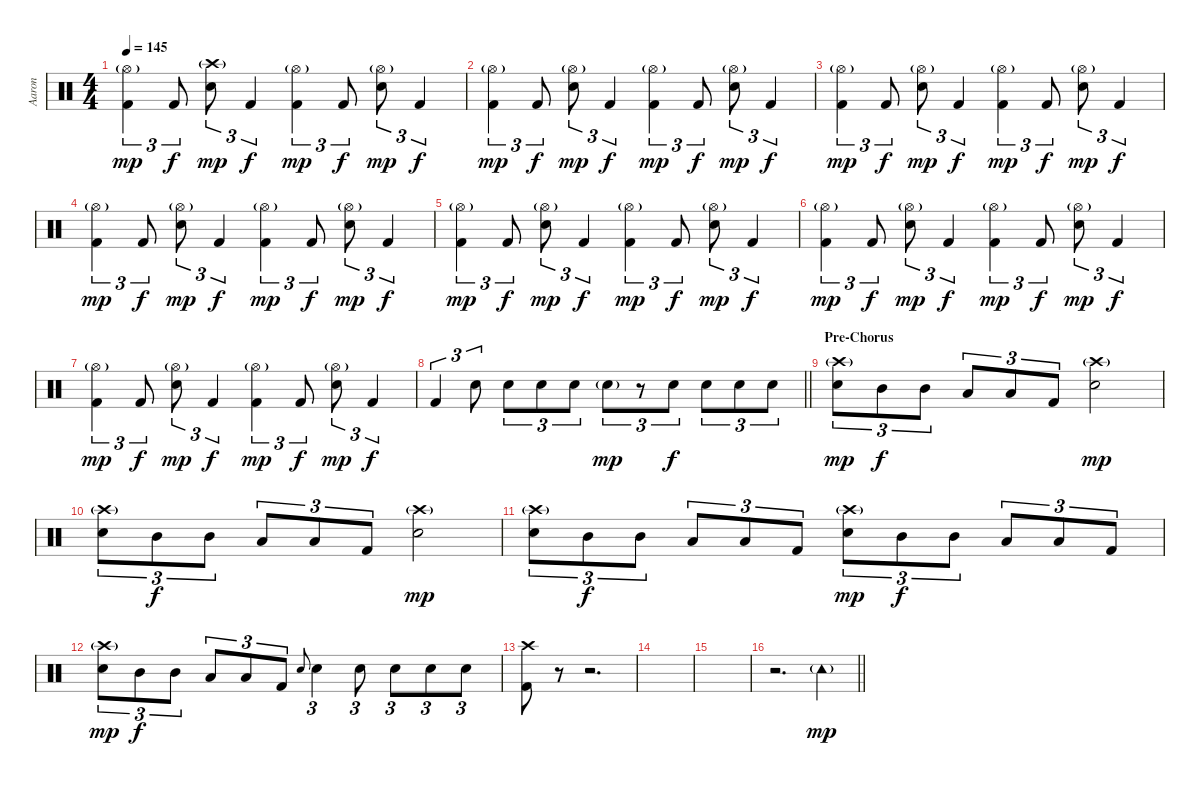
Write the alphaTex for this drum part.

\track ("Aaron" "Aaron") {instrument percussion}
\staff {score}
\articulation defaults
\ts (4 4)
\tempo 145
\clef neutral
\ks c
("Hi-Hat (open)"{g} "Kick (hit) 2").4{tu (3 2) dy mp} "Kick (hit) 2".8{tu (3 2) dy f} ("Crash high (hit)"{g} "Electric Snare (hit)").8{tu (3 2) dy mp} "Kick (hit) 2".4{tu (3 2) dy f} ("Hi-Hat (open)"{g} "Kick (hit) 2").4{tu (3 2) dy mp} "Kick (hit) 2".8{tu (3 2) dy f} ("Hi-Hat (open)"{g} "Electric Snare (hit)").8{tu (3 2) dy mp} "Kick (hit) 2".4{tu (3 2) dy f} |
("Hi-Hat (open)"{g} "Kick (hit) 2").4{tu (3 2) dy mp} "Kick (hit) 2".8{tu (3 2) dy f} ("Hi-Hat (open)"{g} "Electric Snare (hit)").8{tu (3 2) dy mp} "Kick (hit) 2".4{tu (3 2) dy f} ("Hi-Hat (open)"{g} "Kick (hit) 2").4{tu (3 2) dy mp} "Kick (hit) 2".8{tu (3 2) dy f} ("Hi-Hat (open)"{g} "Electric Snare (hit)").8{tu (3 2) dy mp} "Kick (hit) 2".4{tu (3 2) dy f} |
("Hi-Hat (open)"{g} "Kick (hit) 2").4{tu (3 2) dy mp} "Kick (hit) 2".8{tu (3 2) dy f} ("Hi-Hat (open)"{g} "Electric Snare (hit)").8{tu (3 2) dy mp} "Kick (hit) 2".4{tu (3 2) dy f} ("Hi-Hat (open)"{g} "Kick (hit) 2").4{tu (3 2) dy mp} "Kick (hit) 2".8{tu (3 2) dy f} ("Hi-Hat (open)"{g} "Electric Snare (hit)").8{tu (3 2) dy mp} "Kick (hit) 2".4{tu (3 2) dy f} |
("Hi-Hat (open)"{g} "Kick (hit) 2").4{tu (3 2) dy mp} "Kick (hit) 2".8{tu (3 2) dy f} ("Hi-Hat (open)"{g} "Electric Snare (hit)").8{tu (3 2) dy mp} "Kick (hit) 2".4{tu (3 2) dy f} ("Hi-Hat (open)"{g} "Kick (hit) 2").4{tu (3 2) dy mp} "Kick (hit) 2".8{tu (3 2) dy f} ("Hi-Hat (open)"{g} "Electric Snare (hit)").8{tu (3 2) dy mp} "Kick (hit) 2".4{tu (3 2) dy f} |
("Hi-Hat (open)"{g} "Kick (hit) 2").4{tu (3 2) dy mp} "Kick (hit) 2".8{tu (3 2) dy f} ("Hi-Hat (open)"{g} "Electric Snare (hit)").8{tu (3 2) dy mp} "Kick (hit) 2".4{tu (3 2) dy f} ("Hi-Hat (open)"{g} "Kick (hit) 2").4{tu (3 2) dy mp} "Kick (hit) 2".8{tu (3 2) dy f} ("Hi-Hat (open)"{g} "Electric Snare (hit)").8{tu (3 2) dy mp} "Kick (hit) 2".4{tu (3 2) dy f} |
("Hi-Hat (open)"{g} "Kick (hit) 2").4{tu (3 2) dy mp} "Kick (hit) 2".8{tu (3 2) dy f} ("Hi-Hat (open)"{g} "Electric Snare (hit)").8{tu (3 2) dy mp} "Kick (hit) 2".4{tu (3 2) dy f} ("Hi-Hat (open)"{g} "Kick (hit) 2").4{tu (3 2) dy mp} "Kick (hit) 2".8{tu (3 2) dy f} ("Hi-Hat (open)"{g} "Electric Snare (hit)").8{tu (3 2) dy mp} "Kick (hit) 2".4{tu (3 2) dy f} |
("Hi-Hat (open)"{g} "Kick (hit) 2").4{tu (3 2) dy mp} "Kick (hit) 2".8{tu (3 2) dy f} ("Hi-Hat (open)"{g} "Electric Snare (hit)").8{tu (3 2) dy mp} "Kick (hit) 2".4{tu (3 2) dy f} ("Hi-Hat (open)"{g} "Kick (hit) 2").4{tu (3 2) dy mp} "Kick (hit) 2".8{tu (3 2) dy f} ("Hi-Hat (open)"{g} "Electric Snare (hit)").8{tu (3 2) dy mp} "Kick (hit) 2".4{tu (3 2) dy f} |
\barLineRight lightlight "Kick (hit) 2".4{tu (3 2)} "Electric Snare (hit)".8{tu (3 2)} "Electric Snare (hit)".8{tu (3 2)} "Electric Snare (hit)".8{tu (3 2)} "Electric Snare (hit)".8{tu (3 2)} "Electric Snare (hit)"{g}.8{tu (3 2) dy mp}
r.8{tu (3 2)} "Electric Snare (hit)".8{tu (3 2) dy f} "Electric Snare (hit)".8{tu (3 2)} "Electric Snare (hit)".8{tu (3 2)} "Electric Snare (hit)".8{tu (3 2)} |
\section ("" "Pre-Chorus")
("Crash high (hit)"{g} "Electric Snare (hit)").8{tu (3 2) dy mp} "Mid Tom (hit)".8{tu (3 2) dy f} "Mid Tom (hit)".8{tu (3 2)} "Low Tom (hit)".8{tu (3 2)} "Low Tom (hit)".8{tu (3 2)} "Kick (hit) 2".8{tu (3 2)} ("Crash high (hit)"{g} "Electric Snare (hit)").2{dy mp} |
("Crash high (hit)"{g} "Electric Snare (hit)").8{tu (3 2)} "Mid Tom (hit)".8{tu (3 2) dy f} "Mid Tom (hit)".8{tu (3 2)} "Low Tom (hit)".8{tu (3 2)} "Low Tom (hit)".8{tu (3 2)} "Kick (hit) 2".8{tu (3 2)} ("Crash high (hit)"{g} "Electric Snare (hit)").2{dy mp} |
("Crash high (hit)"{g} "Electric Snare (hit)").8{tu (3 2)} "Mid Tom (hit)".8{tu (3 2) dy f} "Mid Tom (hit)".8{tu (3 2)} "Low Tom (hit)".8{tu (3 2)} "Low Tom (hit)".8{tu (3 2)} "Kick (hit) 2".8{tu (3 2)} ("Crash high (hit)"{g} "Electric Snare (hit)").8{tu (3 2) dy mp} "Mid Tom (hit)".8{tu (3 2) dy f} "Mid Tom (hit)".8{tu (3 2)} "Low Tom (hit)".8{tu (3 2)} "Low Tom (hit)".8{tu (3 2)} "Kick (hit) 2".8{tu (3 2)} |
("Crash high (hit)"{g} "Electric Snare (hit)").8{tu (3 2) dy mp} "Mid Tom (hit)".8{tu (3 2) dy f} "Mid Tom (hit)".8{tu (3 2)} "Low Tom (hit)".8{tu (3 2)} "Low Tom (hit)".8{tu (3 2)} "Kick (hit) 2".8{tu (3 2)} "Electric Snare (hit)".8{gr onbeat} "Electric Snare (hit)".4{tu (3 2)} "Electric Snare (hit)".8{tu (3 2)} "Electric Snare (hit)".8{tu (3 2)} "Electric Snare (hit)".8{tu (3 2)} "Electric Snare (hit)".8{tu (3 2)} |
("Crash high (hit)" "Kick (hit) 2").8 r.8 r.2{d} |
|
|
\barLineRight lightlight
r.2{d} "Tambourine (hit)"{g}.4{dy mp}
